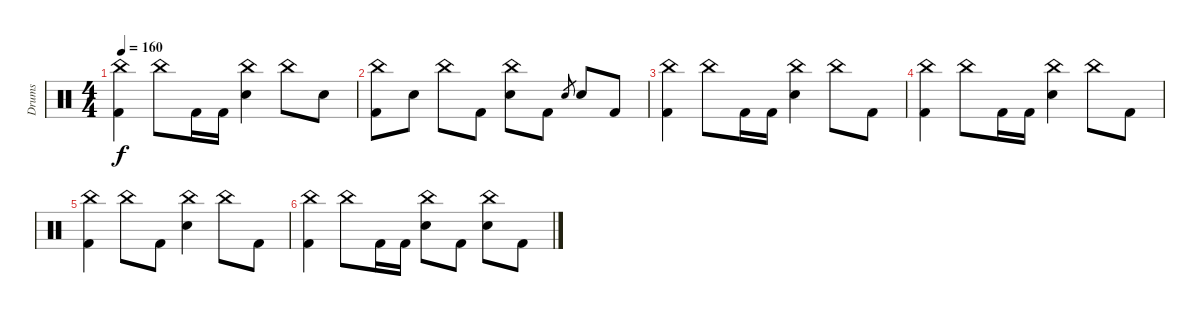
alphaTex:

\track ("Drums" "Drums") {instrument percussion}
\staff {score}
\articulation defaults
\ts (4 4)
\tempo 160
\clef neutral
\ks c
("China (hit)" "Kick (hit) 2").4{dy f volume 3} "China (hit)".8 "Kick (hit) 2".16 "Kick (hit) 2".16 ("China (hit)" "Electric Snare (hit)").4 "China (hit)".8 "Electric Snare (hit)".8 |
("China (hit)" "Kick (hit) 2").8{volume 2} "Electric Snare (hit)".8 "China (hit)".8 "Kick (hit) 2".8 ("China (hit)" "Electric Snare (hit)").8 "Kick (hit) 2".8 "Electric Snare (hit)".8{gr} "Electric Snare (hit)".8 "Kick (hit) 2".8 |
("China (hit)" "Kick (hit) 2").4 "China (hit)".8 "Kick (hit) 2".16 "Kick (hit) 2".16 ("China (hit)" "Electric Snare (hit)").4 "China (hit)".8 "Kick (hit) 2".8 |
("China (hit)" "Kick (hit) 2").4 "China (hit)".8 "Kick (hit) 2".16 "Kick (hit) 2".16 ("China (hit)" "Electric Snare (hit)").4 "China (hit)".8 "Kick (hit) 2".8 |
("China (hit)" "Kick (hit) 2").4{volume 1} "China (hit)".8 "Kick (hit) 2".8 ("China (hit)" "Electric Snare (hit)").4 "China (hit)".8 "Kick (hit) 2".8 |
("China (hit)" "Kick (hit) 2").4 "China (hit)".8 "Kick (hit) 2".16 "Kick (hit) 2".16 ("China (hit)" "Electric Snare (hit)").8 "Kick (hit) 2".8 ("China (hit)" "Electric Snare (hit)").8 "Kick (hit) 2".8
